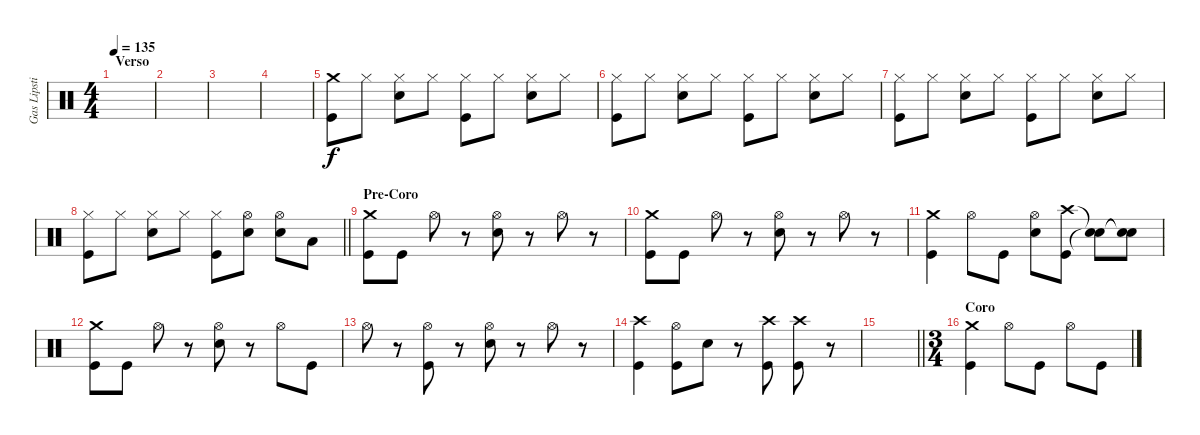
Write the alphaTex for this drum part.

\track ("Gas Lipstick" "Gas Lipsti") {instrument percussion}
\staff {score}
\articulation defaults
\ts (4 4)
\section ("" "Verso")
\tempo 135
\clef neutral
\ks c
|
|
|
|
("Crash medium (hit)" "Kick (hit)").8 "Hi-Hat (closed)".8 ("Hi-Hat (closed)" "Snare (hit) 2").8 "Hi-Hat (closed)".8 ("Hi-Hat (closed)" "Kick (hit)").8 "Hi-Hat (closed)".8 ("Hi-Hat (closed)" "Snare (hit) 2").8 "Hi-Hat (closed)".8 |
("Hi-Hat (closed)" "Kick (hit)").8 "Hi-Hat (closed)".8 ("Hi-Hat (closed)" "Snare (hit) 2").8 "Hi-Hat (closed)".8 ("Hi-Hat (closed)" "Kick (hit)").8 "Hi-Hat (closed)".8 ("Hi-Hat (closed)" "Snare (hit) 2").8 "Hi-Hat (closed)".8 |
("Hi-Hat (closed)" "Kick (hit)").8 "Hi-Hat (closed)".8 ("Hi-Hat (closed)" "Snare (hit) 2").8 "Hi-Hat (closed)".8 ("Hi-Hat (closed)" "Kick (hit)").8 "Hi-Hat (closed)".8 ("Hi-Hat (closed)" "Snare (hit) 2").8 "Hi-Hat (closed)".8 |
\barLineRight lightlight
("Hi-Hat (closed)" "Kick (hit)").8 "Hi-Hat (closed)".8 ("Hi-Hat (closed)" "Snare (hit) 2").8 "Hi-Hat (closed)".8 ("Hi-Hat (closed)" "Kick (hit)").8 ("Hi-Hat (open)" "Snare (hit) 2").8 ("Hi-Hat (open)" "Snare (hit) 2").8 "Low Tom (hit)".8 |
\section ("" "Pre-Coro")
("Crash medium (hit)" "Kick (hit)").8 "Kick (hit)".8 "Hi-Hat (open)".8 r.8 ("Hi-Hat (open)" "Snare (hit) 2").8 r.8 "Hi-Hat (open)".8 r.8 |
("Crash medium (hit)" "Kick (hit)").8 "Kick (hit)".8 "Hi-Hat (open)".8 r.8 ("Hi-Hat (open)" "Snare (hit) 2").8 r.8 "Hi-Hat (open)".8 r.8 |
("Crash medium (hit)" "Kick (hit)").4 "Hi-Hat (open)".8 "Kick (hit)".8 ("Hi-Hat (open)" "Snare (hit) 2").8 ("Crash high (hit)" "Kick (hit)").8 ("Snare (hit)"{t} "Snare (hit)"{t}).8 ("Snare (hit)"{t} "Snare (hit)"{t}).8 |
("Crash medium (hit)" "Kick (hit)").8 "Kick (hit)".8 "Hi-Hat (open)".8 r.8 ("Hi-Hat (open)" "Snare (hit) 2").8 r.8 "Hi-Hat (open)".8 "Kick (hit)".8 |
"Hi-Hat (open)".8 r.8 ("Hi-Hat (open)" "Kick (hit)").8 r.8 ("Hi-Hat (open)" "Snare (hit) 2").8 r.8 "Hi-Hat (open)".8 r.8 |
("Crash high (hit)" "Kick (hit)").4 ("Hi-Hat (open)" "Kick (hit)").8 "Snare (hit) 2".8 r.8 ("Crash high (hit)" "Kick (hit)").8 ("Crash high (hit)" "Kick (hit)").8 r.8 |
\barLineRight lightlight
|
\ts (3 4)
\section ("" "Coro")
("Crash medium (hit)" "Kick (hit)").4 "Hi-Hat (open)".8 "Kick (hit)".8 "Hi-Hat (open)".8 "Kick (hit)".8
